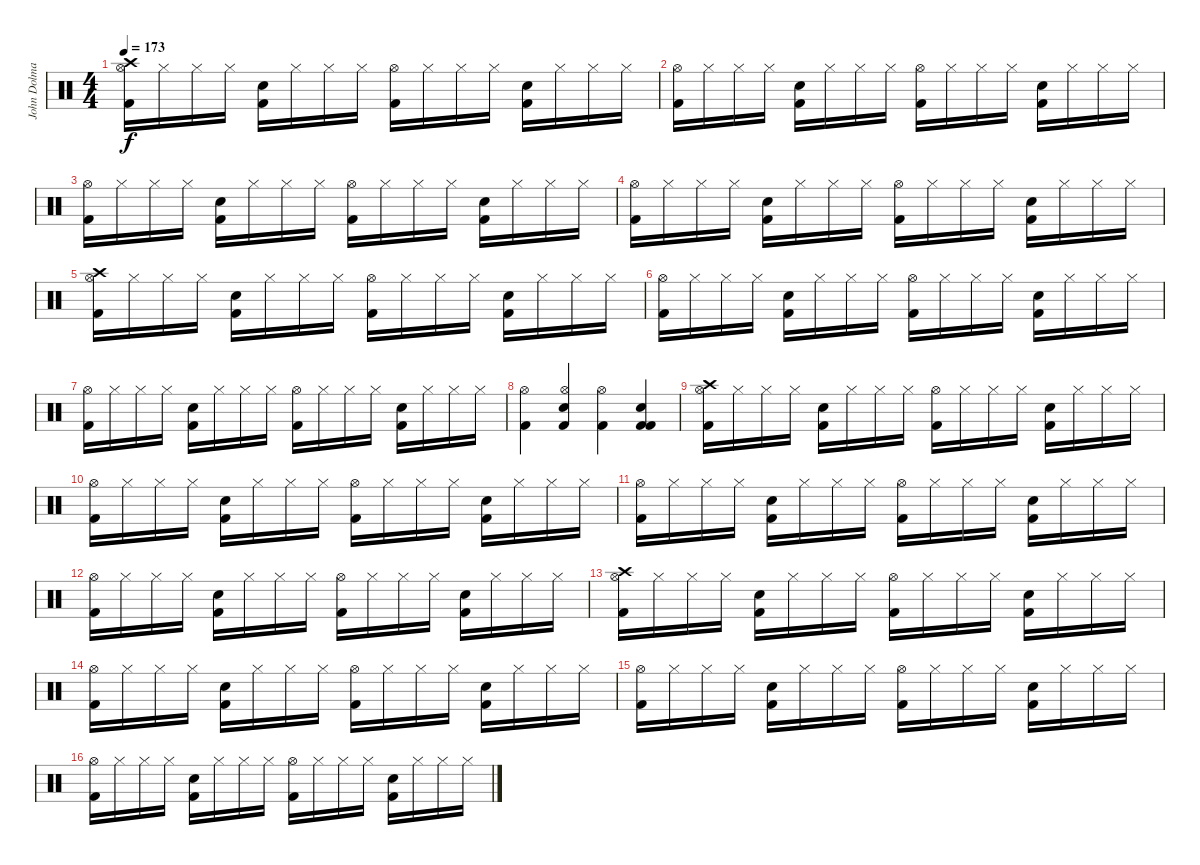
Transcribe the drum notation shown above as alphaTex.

\track ("John Dolmayan" "John Dolma") {instrument percussion}
\staff {score}
\articulation defaults
\ts (4 4)
\tempo 173
\clef neutral
\ks c
("Kick (hit) 2" "Hi-Hat (open)" "Crash high (hit)").16{dy f} "Hi-Hat (closed)".16 "Hi-Hat (closed)".16 "Hi-Hat (closed)".16 ("Kick (hit) 2" "Electric Snare (hit)").16 "Hi-Hat (closed)".16 "Hi-Hat (closed)".16 "Hi-Hat (closed)".16 ("Kick (hit) 2" "Hi-Hat (open)").16 "Hi-Hat (closed)".16 "Hi-Hat (closed)".16 "Hi-Hat (closed)".16 ("Kick (hit) 2" "Electric Snare (hit)").16 "Hi-Hat (closed)".16 "Hi-Hat (closed)".16 "Hi-Hat (closed)".16 |
("Kick (hit) 2" "Hi-Hat (open)").16 "Hi-Hat (closed)".16 "Hi-Hat (closed)".16 "Hi-Hat (closed)".16 ("Kick (hit) 2" "Electric Snare (hit)").16 "Hi-Hat (closed)".16 "Hi-Hat (closed)".16 "Hi-Hat (closed)".16 ("Kick (hit) 2" "Hi-Hat (open)").16 "Hi-Hat (closed)".16 "Hi-Hat (closed)".16 "Hi-Hat (closed)".16 ("Kick (hit) 2" "Electric Snare (hit)").16 "Hi-Hat (closed)".16 "Hi-Hat (closed)".16 "Hi-Hat (closed)".16 |
("Kick (hit) 2" "Hi-Hat (open)").16 "Hi-Hat (closed)".16 "Hi-Hat (closed)".16 "Hi-Hat (closed)".16 ("Kick (hit) 2" "Electric Snare (hit)").16 "Hi-Hat (closed)".16 "Hi-Hat (closed)".16 "Hi-Hat (closed)".16 ("Kick (hit) 2" "Hi-Hat (open)").16 "Hi-Hat (closed)".16 "Hi-Hat (closed)".16 "Hi-Hat (closed)".16 ("Kick (hit) 2" "Electric Snare (hit)").16 "Hi-Hat (closed)".16 "Hi-Hat (closed)".16 "Hi-Hat (closed)".16 |
("Kick (hit) 2" "Hi-Hat (open)").16 "Hi-Hat (closed)".16 "Hi-Hat (closed)".16 "Hi-Hat (closed)".16 ("Kick (hit) 2" "Electric Snare (hit)").16 "Hi-Hat (closed)".16 "Hi-Hat (closed)".16 "Hi-Hat (closed)".16 ("Kick (hit) 2" "Hi-Hat (open)").16 "Hi-Hat (closed)".16 "Hi-Hat (closed)".16 "Hi-Hat (closed)".16 ("Kick (hit) 2" "Electric Snare (hit)").16 "Hi-Hat (closed)".16 "Hi-Hat (closed)".16 "Hi-Hat (closed)".16 |
("Kick (hit) 2" "Hi-Hat (open)" "Crash high (hit)").16 "Hi-Hat (closed)".16 "Hi-Hat (closed)".16 "Hi-Hat (closed)".16 ("Kick (hit) 2" "Electric Snare (hit)").16 "Hi-Hat (closed)".16 "Hi-Hat (closed)".16 "Hi-Hat (closed)".16 ("Kick (hit) 2" "Hi-Hat (open)").16 "Hi-Hat (closed)".16 "Hi-Hat (closed)".16 "Hi-Hat (closed)".16 ("Kick (hit) 2" "Electric Snare (hit)").16 "Hi-Hat (closed)".16 "Hi-Hat (closed)".16 "Hi-Hat (closed)".16 |
("Kick (hit) 2" "Hi-Hat (open)").16 "Hi-Hat (closed)".16 "Hi-Hat (closed)".16 "Hi-Hat (closed)".16 ("Kick (hit) 2" "Electric Snare (hit)").16 "Hi-Hat (closed)".16 "Hi-Hat (closed)".16 "Hi-Hat (closed)".16 ("Kick (hit) 2" "Hi-Hat (open)").16 "Hi-Hat (closed)".16 "Hi-Hat (closed)".16 "Hi-Hat (closed)".16 ("Kick (hit) 2" "Electric Snare (hit)").16 "Hi-Hat (closed)".16 "Hi-Hat (closed)".16 "Hi-Hat (closed)".16 |
("Kick (hit) 2" "Hi-Hat (open)").16 "Hi-Hat (closed)".16 "Hi-Hat (closed)".16 "Hi-Hat (closed)".16 ("Kick (hit) 2" "Electric Snare (hit)").16 "Hi-Hat (closed)".16 "Hi-Hat (closed)".16 "Hi-Hat (closed)".16 ("Kick (hit) 2" "Hi-Hat (open)").16 "Hi-Hat (closed)".16 "Hi-Hat (closed)".16 "Hi-Hat (closed)".16 ("Kick (hit) 2" "Electric Snare (hit)").16 "Hi-Hat (closed)".16 "Hi-Hat (closed)".16 "Hi-Hat (closed)".16 |
("Kick (hit) 2" "Hi-Hat (open)").4 ("Kick (hit) 2" "Hi-Hat (open)" "Electric Snare (hit)").4 ("Kick (hit) 2" "Hi-Hat (open)").4 ("Kick (hit) 2" "Kick (hit) 2" "Electric Snare (hit)").4 |
("Kick (hit) 2" "Hi-Hat (open)" "Crash high (hit)").16 "Hi-Hat (closed)".16 "Hi-Hat (closed)".16 "Hi-Hat (closed)".16 ("Kick (hit) 2" "Electric Snare (hit)").16 "Hi-Hat (closed)".16 "Hi-Hat (closed)".16 "Hi-Hat (closed)".16 ("Kick (hit) 2" "Hi-Hat (open)").16 "Hi-Hat (closed)".16 "Hi-Hat (closed)".16 "Hi-Hat (closed)".16 ("Kick (hit) 2" "Electric Snare (hit)").16 "Hi-Hat (closed)".16 "Hi-Hat (closed)".16 "Hi-Hat (closed)".16 |
("Kick (hit) 2" "Hi-Hat (open)").16 "Hi-Hat (closed)".16 "Hi-Hat (closed)".16 "Hi-Hat (closed)".16 ("Kick (hit) 2" "Electric Snare (hit)").16 "Hi-Hat (closed)".16 "Hi-Hat (closed)".16 "Hi-Hat (closed)".16 ("Kick (hit) 2" "Hi-Hat (open)").16 "Hi-Hat (closed)".16 "Hi-Hat (closed)".16 "Hi-Hat (closed)".16 ("Kick (hit) 2" "Electric Snare (hit)").16 "Hi-Hat (closed)".16 "Hi-Hat (closed)".16 "Hi-Hat (closed)".16 |
("Kick (hit) 2" "Hi-Hat (open)").16 "Hi-Hat (closed)".16 "Hi-Hat (closed)".16 "Hi-Hat (closed)".16 ("Kick (hit) 2" "Electric Snare (hit)").16 "Hi-Hat (closed)".16 "Hi-Hat (closed)".16 "Hi-Hat (closed)".16 ("Kick (hit) 2" "Hi-Hat (open)").16 "Hi-Hat (closed)".16 "Hi-Hat (closed)".16 "Hi-Hat (closed)".16 ("Kick (hit) 2" "Electric Snare (hit)").16 "Hi-Hat (closed)".16 "Hi-Hat (closed)".16 "Hi-Hat (closed)".16 |
("Kick (hit) 2" "Hi-Hat (open)").16 "Hi-Hat (closed)".16 "Hi-Hat (closed)".16 "Hi-Hat (closed)".16 ("Kick (hit) 2" "Electric Snare (hit)").16 "Hi-Hat (closed)".16 "Hi-Hat (closed)".16 "Hi-Hat (closed)".16 ("Kick (hit) 2" "Hi-Hat (open)").16 "Hi-Hat (closed)".16 "Hi-Hat (closed)".16 "Hi-Hat (closed)".16 ("Kick (hit) 2" "Electric Snare (hit)").16 "Hi-Hat (closed)".16 "Hi-Hat (closed)".16 "Hi-Hat (closed)".16 |
("Kick (hit) 2" "Hi-Hat (open)" "Crash high (hit)").16 "Hi-Hat (closed)".16 "Hi-Hat (closed)".16 "Hi-Hat (closed)".16 ("Kick (hit) 2" "Electric Snare (hit)").16 "Hi-Hat (closed)".16 "Hi-Hat (closed)".16 "Hi-Hat (closed)".16 ("Kick (hit) 2" "Hi-Hat (open)").16 "Hi-Hat (closed)".16 "Hi-Hat (closed)".16 "Hi-Hat (closed)".16 ("Kick (hit) 2" "Electric Snare (hit)").16 "Hi-Hat (closed)".16 "Hi-Hat (closed)".16 "Hi-Hat (closed)".16 |
("Kick (hit) 2" "Hi-Hat (open)").16 "Hi-Hat (closed)".16 "Hi-Hat (closed)".16 "Hi-Hat (closed)".16 ("Kick (hit) 2" "Electric Snare (hit)").16 "Hi-Hat (closed)".16 "Hi-Hat (closed)".16 "Hi-Hat (closed)".16 ("Kick (hit) 2" "Hi-Hat (open)").16 "Hi-Hat (closed)".16 "Hi-Hat (closed)".16 "Hi-Hat (closed)".16 ("Kick (hit) 2" "Electric Snare (hit)").16 "Hi-Hat (closed)".16 "Hi-Hat (closed)".16 "Hi-Hat (closed)".16 |
("Kick (hit) 2" "Hi-Hat (open)").16 "Hi-Hat (closed)".16 "Hi-Hat (closed)".16 "Hi-Hat (closed)".16 ("Kick (hit) 2" "Electric Snare (hit)").16 "Hi-Hat (closed)".16 "Hi-Hat (closed)".16 "Hi-Hat (closed)".16 ("Kick (hit) 2" "Hi-Hat (open)").16 "Hi-Hat (closed)".16 "Hi-Hat (closed)".16 "Hi-Hat (closed)".16 ("Kick (hit) 2" "Electric Snare (hit)").16 "Hi-Hat (closed)".16 "Hi-Hat (closed)".16 "Hi-Hat (closed)".16 |
("Kick (hit) 2" "Hi-Hat (open)").16 "Hi-Hat (closed)".16 "Hi-Hat (closed)".16 "Hi-Hat (closed)".16 ("Kick (hit) 2" "Electric Snare (hit)").16 "Hi-Hat (closed)".16 "Hi-Hat (closed)".16 "Hi-Hat (closed)".16 ("Kick (hit) 2" "Hi-Hat (open)").16 "Hi-Hat (closed)".16 "Hi-Hat (closed)".16 "Hi-Hat (closed)".16 ("Kick (hit) 2" "Electric Snare (hit)").16 "Hi-Hat (closed)".16 "Hi-Hat (closed)".16 "Hi-Hat (closed)".16
